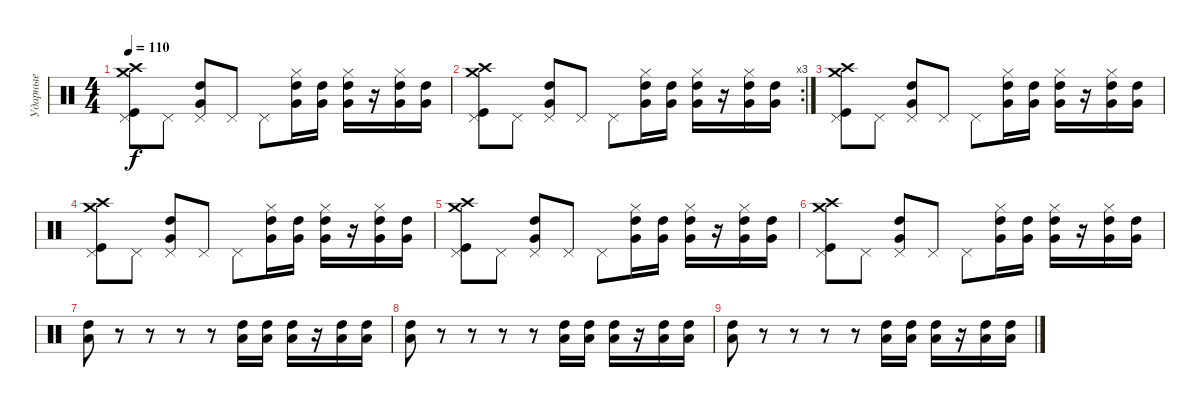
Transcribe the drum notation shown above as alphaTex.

\track ("Ударные" "Ударные") {instrument percussion}
\staff {score}
\articulation defaults
\ts (4 4)
\tempo 110
\clef neutral
\ks c
("Crash medium (hit)" "Crash high (hit)" "Kick (hit)" "Pedal Hi-Hat (hit)").8{dy f} "Pedal Hi-Hat (hit)".8 ("High Tom (hit)" "Very Low Tom (hit)" "Pedal Hi-Hat (hit)").8 "Pedal Hi-Hat (hit)".8 "Pedal Hi-Hat (hit)".8 ("High Tom (hit)" "Very Low Tom (hit)" "Hi-Hat (closed)").16 ("High Tom (hit)" "Very Low Tom (hit)").16 ("High Tom (hit)" "Very Low Tom (hit)" "Hi-Hat (closed)").16 r.16 ("High Tom (hit)" "Very Low Tom (hit)" "Hi-Hat (closed)").16 ("High Tom (hit)" "Very Low Tom (hit)").16 |
\rc 3
("Crash medium (hit)" "Crash high (hit)" "Kick (hit)" "Pedal Hi-Hat (hit)").8 "Pedal Hi-Hat (hit)".8 ("High Tom (hit)" "Very Low Tom (hit)" "Pedal Hi-Hat (hit)").8 "Pedal Hi-Hat (hit)".8 "Pedal Hi-Hat (hit)".8 ("High Tom (hit)" "Very Low Tom (hit)" "Hi-Hat (closed)").16 ("High Tom (hit)" "Very Low Tom (hit)").16 ("High Tom (hit)" "Very Low Tom (hit)" "Hi-Hat (closed)").16 r.16 ("High Tom (hit)" "Very Low Tom (hit)" "Hi-Hat (closed)").16 ("High Tom (hit)" "Very Low Tom (hit)").16 |
("Crash medium (hit)" "Crash high (hit)" "Kick (hit)" "Pedal Hi-Hat (hit)").8 "Pedal Hi-Hat (hit)".8 ("High Tom (hit)" "Very Low Tom (hit)" "Pedal Hi-Hat (hit)").8 "Pedal Hi-Hat (hit)".8 "Pedal Hi-Hat (hit)".8 ("High Tom (hit)" "Very Low Tom (hit)" "Hi-Hat (closed)").16 ("High Tom (hit)" "Very Low Tom (hit)").16 ("High Tom (hit)" "Very Low Tom (hit)" "Hi-Hat (closed)").16 r.16 ("High Tom (hit)" "Very Low Tom (hit)" "Hi-Hat (closed)").16 ("High Tom (hit)" "Very Low Tom (hit)").16 |
("Crash medium (hit)" "Crash high (hit)" "Kick (hit)" "Pedal Hi-Hat (hit)").8 "Pedal Hi-Hat (hit)".8 ("High Tom (hit)" "Very Low Tom (hit)" "Pedal Hi-Hat (hit)").8 "Pedal Hi-Hat (hit)".8 "Pedal Hi-Hat (hit)".8 ("High Tom (hit)" "Very Low Tom (hit)" "Hi-Hat (closed)").16 ("High Tom (hit)" "Very Low Tom (hit)").16 ("High Tom (hit)" "Very Low Tom (hit)" "Hi-Hat (closed)").16 r.16 ("High Tom (hit)" "Very Low Tom (hit)" "Hi-Hat (closed)").16 ("High Tom (hit)" "Very Low Tom (hit)").16 |
("Crash medium (hit)" "Crash high (hit)" "Kick (hit)" "Pedal Hi-Hat (hit)").8 "Pedal Hi-Hat (hit)".8 ("High Tom (hit)" "Very Low Tom (hit)" "Pedal Hi-Hat (hit)").8 "Pedal Hi-Hat (hit)".8 "Pedal Hi-Hat (hit)".8 ("High Tom (hit)" "Very Low Tom (hit)" "Hi-Hat (closed)").16 ("High Tom (hit)" "Very Low Tom (hit)").16 ("High Tom (hit)" "Very Low Tom (hit)" "Hi-Hat (closed)").16 r.16 ("High Tom (hit)" "Very Low Tom (hit)" "Hi-Hat (closed)").16 ("High Tom (hit)" "Very Low Tom (hit)").16 |
("Crash medium (hit)" "Crash high (hit)" "Kick (hit)" "Pedal Hi-Hat (hit)").8 "Pedal Hi-Hat (hit)".8 ("High Tom (hit)" "Very Low Tom (hit)" "Pedal Hi-Hat (hit)").8 "Pedal Hi-Hat (hit)".8 "Pedal Hi-Hat (hit)".8 ("High Tom (hit)" "Very Low Tom (hit)" "Hi-Hat (closed)").16 ("High Tom (hit)" "Very Low Tom (hit)").16 ("High Tom (hit)" "Very Low Tom (hit)" "Hi-Hat (closed)").16 r.16 ("High Tom (hit)" "Very Low Tom (hit)" "Hi-Hat (closed)").16 ("High Tom (hit)" "Very Low Tom (hit)").16 |
("High Tom (hit)" "Low Floor Tom (hit)").8 r.8 r.8 r.8 r.8 ("High Tom (hit)" "Low Floor Tom (hit)").16 ("High Tom (hit)" "Low Floor Tom (hit)").16 ("High Tom (hit)" "Low Floor Tom (hit)").16 r.16 ("High Tom (hit)" "Low Floor Tom (hit)").16 ("High Tom (hit)" "Low Floor Tom (hit)").16 |
("High Tom (hit)" "Low Floor Tom (hit)").8 r.8 r.8 r.8 r.8 ("High Tom (hit)" "Low Floor Tom (hit)").16 ("High Tom (hit)" "Low Floor Tom (hit)").16 ("High Tom (hit)" "Low Floor Tom (hit)").16 r.16 ("High Tom (hit)" "Low Floor Tom (hit)").16 ("High Tom (hit)" "Low Floor Tom (hit)").16 |
("High Tom (hit)" "Low Floor Tom (hit)").8 r.8 r.8 r.8 r.8 ("High Tom (hit)" "Low Floor Tom (hit)").16 ("High Tom (hit)" "Low Floor Tom (hit)").16 ("High Tom (hit)" "Low Floor Tom (hit)").16 r.16 ("High Tom (hit)" "Low Floor Tom (hit)").16 ("High Tom (hit)" "Low Floor Tom (hit)").16
